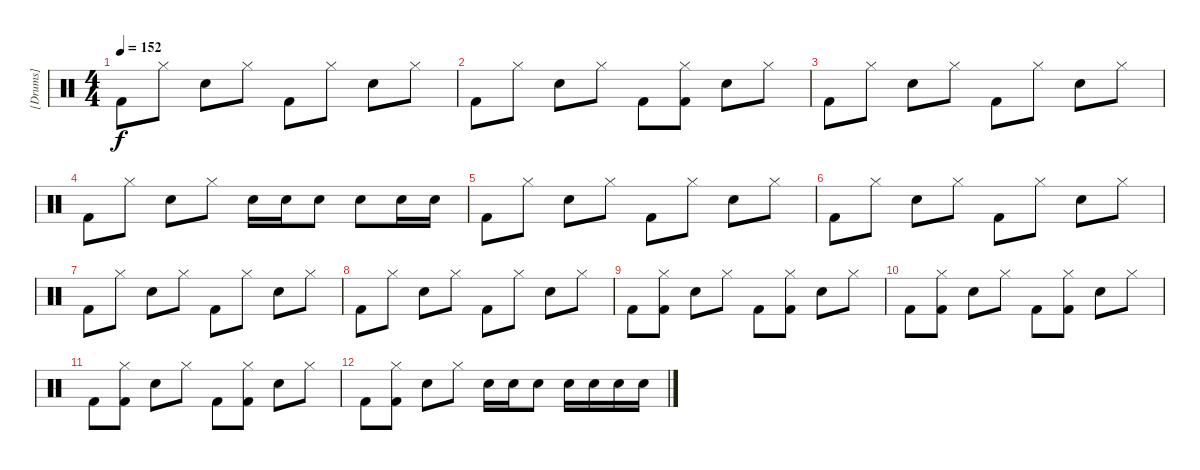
\track ("[Drums]" "[Drums]") {instrument percussion}
\staff {score}
\articulation defaults
\ts (4 4)
\tempo 152
\clef neutral
\ks c "Kick (hit) 2".8{dy f} "Hi-Hat (closed)".8 "Electric Snare (hit)".8 "Hi-Hat (closed)".8 "Kick (hit) 2".8 "Hi-Hat (closed)".8 "Electric Snare (hit)".8 "Hi-Hat (closed)".8
|
"Kick (hit) 2".8 "Hi-Hat (closed)".8 "Electric Snare (hit)".8 "Hi-Hat (closed)".8 "Kick (hit) 2".8 ("Hi-Hat (closed)" "Kick (hit) 2").8 "Electric Snare (hit)".8 "Hi-Hat (closed)".8 |
"Kick (hit) 2".8 "Hi-Hat (closed)".8 "Electric Snare (hit)".8 "Hi-Hat (closed)".8 "Kick (hit) 2".8 "Hi-Hat (closed)".8 "Electric Snare (hit)".8 "Hi-Hat (closed)".8 |
"Kick (hit) 2".8 "Hi-Hat (closed)".8 "Electric Snare (hit)".8 "Hi-Hat (closed)".8 "Electric Snare (hit)".16 "Electric Snare (hit)".16 "Electric Snare (hit)".8 "Electric Snare (hit)".8 "Electric Snare (hit)".16 "Electric Snare (hit)".16 |
"Kick (hit) 2".8 "Hi-Hat (closed)".8 "Electric Snare (hit)".8 "Hi-Hat (closed)".8 "Kick (hit) 2".8 "Hi-Hat (closed)".8 "Electric Snare (hit)".8 "Hi-Hat (closed)".8 |
"Kick (hit) 2".8 "Hi-Hat (closed)".8 "Electric Snare (hit)".8 "Hi-Hat (closed)".8 "Kick (hit) 2".8 "Hi-Hat (closed)".8 "Electric Snare (hit)".8 "Hi-Hat (closed)".8 |
"Kick (hit) 2".8 "Hi-Hat (closed)".8 "Electric Snare (hit)".8 "Hi-Hat (closed)".8 "Kick (hit) 2".8 "Hi-Hat (closed)".8 "Electric Snare (hit)".8 "Hi-Hat (closed)".8 |
"Kick (hit) 2".8 "Hi-Hat (closed)".8 "Electric Snare (hit)".8 "Hi-Hat (closed)".8 "Kick (hit) 2".8 "Hi-Hat (closed)".8 "Electric Snare (hit)".8 "Hi-Hat (closed)".8 |
"Kick (hit) 2".8 ("Hi-Hat (closed)" "Kick (hit) 2").8 "Electric Snare (hit)".8 "Hi-Hat (closed)".8 "Kick (hit) 2".8 ("Hi-Hat (closed)" "Kick (hit) 2").8 "Electric Snare (hit)".8 "Hi-Hat (closed)".8 |
"Kick (hit) 2".8 ("Hi-Hat (closed)" "Kick (hit) 2").8 "Electric Snare (hit)".8 "Hi-Hat (closed)".8 "Kick (hit) 2".8 ("Hi-Hat (closed)" "Kick (hit) 2").8 "Electric Snare (hit)".8 "Hi-Hat (closed)".8 |
"Kick (hit) 2".8 ("Hi-Hat (closed)" "Kick (hit) 2").8 "Electric Snare (hit)".8 "Hi-Hat (closed)".8 "Kick (hit) 2".8 ("Hi-Hat (closed)" "Kick (hit) 2").8 "Electric Snare (hit)".8 "Hi-Hat (closed)".8 |
"Kick (hit) 2".8 ("Hi-Hat (closed)" "Kick (hit) 2").8 "Electric Snare (hit)".8 "Hi-Hat (closed)".8 "Electric Snare (hit)".16 "Electric Snare (hit)".16 "Electric Snare (hit)".8 "Electric Snare (hit)".16 "Electric Snare (hit)".16 "Electric Snare (hit)".16 "Electric Snare (hit)".16
